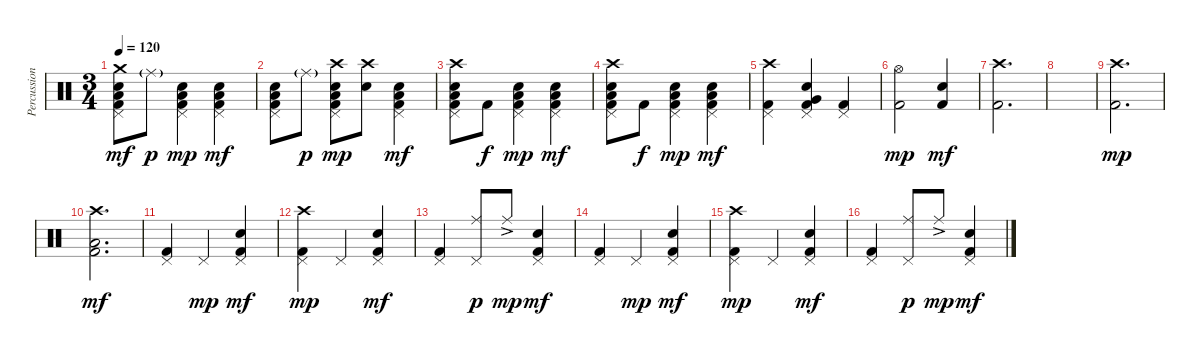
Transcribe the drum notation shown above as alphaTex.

\track ("Percussion" "Percussion") {instrument percussion}
\staff {score}
\articulation defaults
\ts (3 4)
\tempo 120
\clef neutral
\ks c
("Snare (hit) 2" "Kick (hit) 2" "Crash medium (hit)" "Pedal Hi-Hat (hit)" "Low Tom (hit)").8{dy mf} "Ride (middle)"{g}.8{dy p} ("Snare (hit) 2" "Kick (hit) 2" "Pedal Hi-Hat (hit)" "Low Floor Tom (hit)").4{dy mp} ("Snare (hit) 2" "Kick (hit) 2" "Pedal Hi-Hat (hit)" "Low Tom (hit)").4{dy mf} |
("Snare (hit) 2" "Kick (hit) 2" "Pedal Hi-Hat (hit)" "Low Tom (hit)").8 "Ride (middle)"{g}.8{dy p} ("Snare (hit) 2" "Kick (hit) 2" "Crash high (hit)" "Pedal Hi-Hat (hit)" "Low Floor Tom (hit)").8{dy mp} ("Snare (hit) 2" "Crash high (hit)").8 ("Snare (hit) 2" "Kick (hit) 2" "Pedal Hi-Hat (hit)" "Low Tom (hit)").4{dy mf} |
("Snare (hit) 2" "Kick (hit) 2" "Crash high (hit)" "Pedal Hi-Hat (hit)" "Low Tom (hit)").8 "Kick (hit) 2".8{dy f} ("Snare (hit) 2" "Kick (hit) 2" "Pedal Hi-Hat (hit)" "Low Floor Tom (hit)").4{dy mp} ("Snare (hit) 2" "Kick (hit) 2" "Pedal Hi-Hat (hit)" "Low Tom (hit)").4{dy mf} |
("Snare (hit) 2" "Kick (hit) 2" "Crash high (hit)" "Pedal Hi-Hat (hit)" "Low Tom (hit)").8 "Kick (hit) 2".8{dy f} ("Snare (hit) 2" "Kick (hit) 2" "Pedal Hi-Hat (hit)" "Low Floor Tom (hit)").4{dy mp} ("Snare (hit) 2" "Kick (hit) 2" "Pedal Hi-Hat (hit)" "Low Tom (hit)").4{dy mf} |
("Kick (hit) 2" "Crash high (hit)" "Pedal Hi-Hat (hit)").4 ("Snare (hit) 2" "Kick (hit) 2" "Pedal Hi-Hat (hit)" "Very Low Tom (hit)").4 ("Kick (hit) 2" "Pedal Hi-Hat (hit)").4 |
("Kick (hit) 2" "Hi-Hat (open)").2{dy mp} ("Snare (hit) 2" "Kick (hit) 2").4{dy mf} |
("Kick (hit) 2" "Crash high (hit)").2{d} |
|
("Kick (hit) 2" "Crash high (hit)").2{d dy mp} |
("Kick (hit) 2" "Crash high (hit)" "Low Floor Tom (hit)").2{d dy mf} |
("Kick (hit) 2" "Pedal Hi-Hat (hit)").4 "Pedal Hi-Hat (hit)".4{dy mp} ("Snare (hit) 2" "Kick (hit) 2" "Pedal Hi-Hat (hit)").4{dy mf} |
("Kick (hit) 2" "Pedal Hi-Hat (hit)" "Crash high (hit)").4{dy mp} "Pedal Hi-Hat (hit)".4 ("Snare (hit) 2" "Kick (hit) 2" "Pedal Hi-Hat (hit)").4{dy mf} |
("Kick (hit) 2" "Pedal Hi-Hat (hit)").4 ("Pedal Hi-Hat (hit)" "Ride (middle)").8{dy p} "Ride (middle)"{ac}.8{dy mp} ("Snare (hit) 2" "Kick (hit) 2" "Pedal Hi-Hat (hit)").4{dy mf} |
("Kick (hit) 2" "Pedal Hi-Hat (hit)").4 "Pedal Hi-Hat (hit)".4{dy mp} ("Snare (hit) 2" "Kick (hit) 2" "Pedal Hi-Hat (hit)").4{dy mf} |
("Kick (hit) 2" "Pedal Hi-Hat (hit)" "Crash high (hit)").4{dy mp} "Pedal Hi-Hat (hit)".4 ("Snare (hit) 2" "Kick (hit) 2" "Pedal Hi-Hat (hit)").4{dy mf} |
("Kick (hit) 2" "Pedal Hi-Hat (hit)").4 ("Pedal Hi-Hat (hit)" "Ride (middle)").8{dy p} "Ride (middle)"{ac}.8{dy mp} ("Snare (hit) 2" "Kick (hit) 2" "Pedal Hi-Hat (hit)").4{dy mf}
